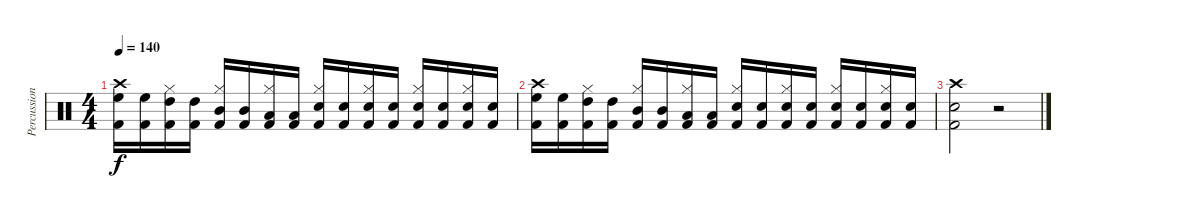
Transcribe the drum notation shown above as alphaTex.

\track ("Percussion" "Percussion") {instrument percussion}
\staff {score}
\articulation defaults
\ts (4 4)
\tempo 140
\clef neutral
\ks aminor
("Crash high (hit)" "High Floor Tom (hit)" "Kick (hit) 2").16{dy f} ("High Floor Tom (hit)" "Kick (hit) 2").16 ("Hi-Hat (closed)" "High Tom (hit)" "Kick (hit) 2").16 ("High Tom (hit)" "Kick (hit) 2").16 ("Hi-Hat (closed)" "Mid Tom (hit)" "Kick (hit) 2").16 ("Mid Tom (hit)" "Kick (hit) 2").16 ("Hi-Hat (closed)" "Low Tom (hit)" "Kick (hit) 2").16 ("Low Tom (hit)" "Kick (hit) 2").16 ("Hi-Hat (closed)" "Snare (hit) 2" "Kick (hit) 2").16 ("Snare (hit) 2" "Kick (hit) 2").16 ("Hi-Hat (closed)" "Snare (hit) 2" "Kick (hit) 2").16 ("Snare (hit) 2" "Kick (hit) 2").16 ("Hi-Hat (closed)" "Snare (hit) 2" "Kick (hit) 2").16 ("Snare (hit) 2" "Kick (hit) 2").16 ("Hi-Hat (closed)" "Snare (hit) 2" "Kick (hit) 2").16 ("Snare (hit) 2" "Kick (hit) 2").16 |
("Crash high (hit)" "High Floor Tom (hit)" "Kick (hit) 2").16 ("High Floor Tom (hit)" "Kick (hit) 2").16 ("Hi-Hat (closed)" "High Tom (hit)" "Kick (hit) 2").16 ("High Tom (hit)" "Kick (hit) 2").16 ("Hi-Hat (closed)" "Mid Tom (hit)" "Kick (hit) 2").16 ("Mid Tom (hit)" "Kick (hit) 2").16 ("Hi-Hat (closed)" "Low Tom (hit)" "Kick (hit) 2").16 ("Low Tom (hit)" "Kick (hit) 2").16 ("Hi-Hat (closed)" "Snare (hit) 2" "Kick (hit) 2").16 ("Snare (hit) 2" "Kick (hit) 2").16 ("Hi-Hat (closed)" "Snare (hit) 2" "Kick (hit) 2").16 ("Snare (hit) 2" "Kick (hit) 2").16 ("Hi-Hat (closed)" "Snare (hit) 2" "Kick (hit) 2").16 ("Snare (hit) 2" "Kick (hit) 2").16 ("Hi-Hat (closed)" "Snare (hit) 2" "Kick (hit) 2").16 ("Snare (hit) 2" "Kick (hit) 2").16 |
("Crash high (hit)" "Snare (hit) 2" "Kick (hit) 2").2 r.2
